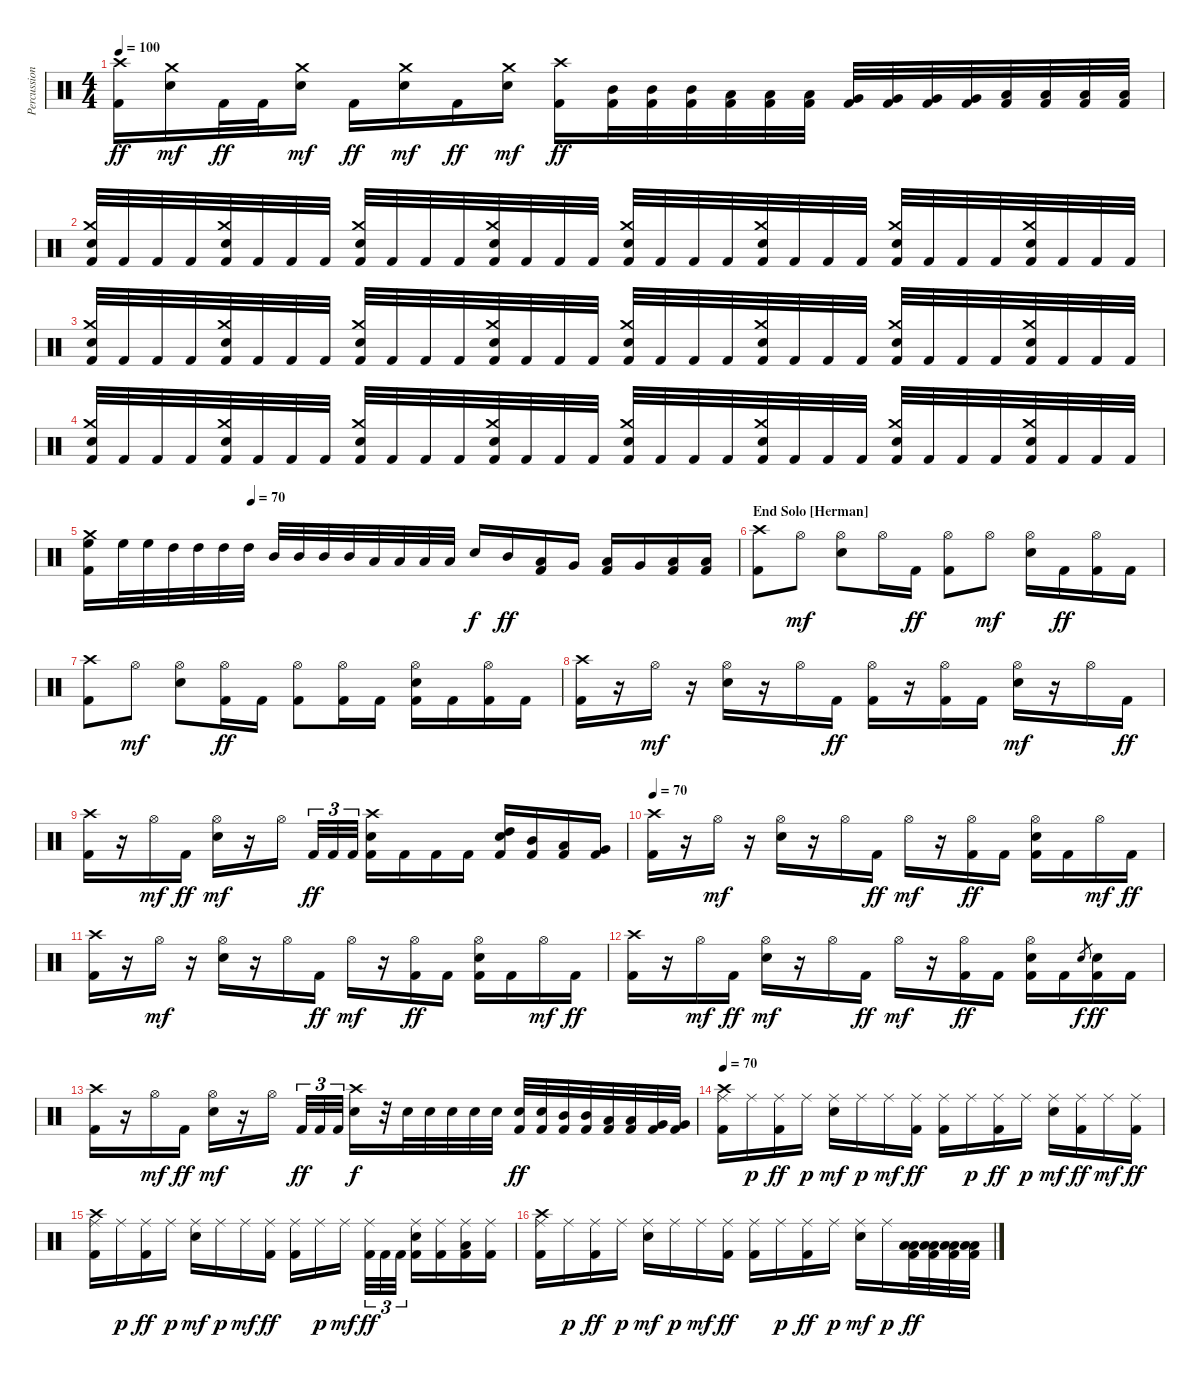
\track ("Percussion" "Percussion") {instrument percussion}
\staff {score}
\articulation defaults
\ts (4 4)
\tempo 100
\clef neutral
\ks c
("Crash high (hit)" "Kick (hit) 2").16{dy ff} ("Crash medium (hit)" "Snare (hit) 2").16{dy mf} "Kick (hit) 2".32{dy ff} "Kick (hit) 2".32 ("Crash medium (hit)" "Snare (hit) 2").16{dy mf} "Kick (hit) 2".16{dy ff} ("Crash medium (hit)" "Snare (hit) 2").16{dy mf} "Kick (hit) 2".16{dy ff} ("Crash medium (hit)" "Snare (hit) 2").16{dy mf} ("Crash high (hit)" "Kick (hit) 2").16{dy ff} ("Mid Tom (hit)" "Kick (hit) 2").32 ("Mid Tom (hit)" "Kick (hit) 2").32 ("Mid Tom (hit)" "Kick (hit) 2").32 ("Low Tom (hit)" "Kick (hit) 2").32 ("Low Tom (hit)" "Kick (hit) 2").32 ("Low Tom (hit)" "Kick (hit) 2").32 ("Very Low Tom (hit)" "Kick (hit) 2").32 ("Very Low Tom (hit)" "Kick (hit) 2").32 ("Very Low Tom (hit)" "Kick (hit) 2").32 ("Very Low Tom (hit)" "Kick (hit) 2").32 ("Low Floor Tom (hit)" "Kick (hit) 2").32 ("Low Floor Tom (hit)" "Kick (hit) 2").32 ("Low Floor Tom (hit)" "Kick (hit) 2").32 ("Low Floor Tom (hit)" "Kick (hit) 2").32 |
("Crash medium (hit)" "Snare (hit) 2" "Kick (hit) 2").32 "Kick (hit) 2".32 "Kick (hit) 2".32 "Kick (hit) 2".32 ("Crash medium (hit)" "Snare (hit) 2" "Kick (hit) 2").32 "Kick (hit) 2".32 "Kick (hit) 2".32 "Kick (hit) 2".32 ("Crash medium (hit)" "Snare (hit) 2" "Kick (hit) 2").32 "Kick (hit) 2".32 "Kick (hit) 2".32 "Kick (hit) 2".32 ("Crash medium (hit)" "Snare (hit) 2" "Kick (hit) 2").32 "Kick (hit) 2".32 "Kick (hit) 2".32 "Kick (hit) 2".32 ("Crash medium (hit)" "Snare (hit) 2" "Kick (hit) 2").32 "Kick (hit) 2".32 "Kick (hit) 2".32 "Kick (hit) 2".32 ("Crash medium (hit)" "Snare (hit) 2" "Kick (hit) 2").32 "Kick (hit) 2".32 "Kick (hit) 2".32 "Kick (hit) 2".32 ("Crash medium (hit)" "Snare (hit) 2" "Kick (hit) 2").32 "Kick (hit) 2".32 "Kick (hit) 2".32 "Kick (hit) 2".32 ("Crash medium (hit)" "Snare (hit) 2" "Kick (hit) 2").32 "Kick (hit) 2".32 "Kick (hit) 2".32 "Kick (hit) 2".32 |
("Crash medium (hit)" "Snare (hit) 2" "Kick (hit) 2").32 "Kick (hit) 2".32 "Kick (hit) 2".32 "Kick (hit) 2".32 ("Crash medium (hit)" "Snare (hit) 2" "Kick (hit) 2").32 "Kick (hit) 2".32 "Kick (hit) 2".32 "Kick (hit) 2".32 ("Crash medium (hit)" "Snare (hit) 2" "Kick (hit) 2").32 "Kick (hit) 2".32 "Kick (hit) 2".32 "Kick (hit) 2".32 ("Crash medium (hit)" "Snare (hit) 2" "Kick (hit) 2").32 "Kick (hit) 2".32 "Kick (hit) 2".32 "Kick (hit) 2".32 ("Crash medium (hit)" "Snare (hit) 2" "Kick (hit) 2").32 "Kick (hit) 2".32 "Kick (hit) 2".32 "Kick (hit) 2".32 ("Crash medium (hit)" "Snare (hit) 2" "Kick (hit) 2").32 "Kick (hit) 2".32 "Kick (hit) 2".32 "Kick (hit) 2".32 ("Crash medium (hit)" "Snare (hit) 2" "Kick (hit) 2").32 "Kick (hit) 2".32 "Kick (hit) 2".32 "Kick (hit) 2".32 ("Crash medium (hit)" "Snare (hit) 2" "Kick (hit) 2").32 "Kick (hit) 2".32 "Kick (hit) 2".32 "Kick (hit) 2".32 |
("Crash medium (hit)" "Snare (hit) 2" "Kick (hit) 2").32 "Kick (hit) 2".32 "Kick (hit) 2".32 "Kick (hit) 2".32 ("Crash medium (hit)" "Snare (hit) 2" "Kick (hit) 2").32 "Kick (hit) 2".32 "Kick (hit) 2".32 "Kick (hit) 2".32 ("Crash medium (hit)" "Snare (hit) 2" "Kick (hit) 2").32 "Kick (hit) 2".32 "Kick (hit) 2".32 "Kick (hit) 2".32 ("Crash medium (hit)" "Snare (hit) 2" "Kick (hit) 2").32 "Kick (hit) 2".32 "Kick (hit) 2".32 "Kick (hit) 2".32 ("Crash medium (hit)" "Snare (hit) 2" "Kick (hit) 2").32 "Kick (hit) 2".32 "Kick (hit) 2".32 "Kick (hit) 2".32 ("Crash medium (hit)" "Snare (hit) 2" "Kick (hit) 2").32 "Kick (hit) 2".32 "Kick (hit) 2".32 "Kick (hit) 2".32 ("Crash medium (hit)" "Snare (hit) 2" "Kick (hit) 2").32 "Kick (hit) 2".32 "Kick (hit) 2".32 "Kick (hit) 2".32 ("Crash medium (hit)" "Snare (hit) 2" "Kick (hit) 2").32 "Kick (hit) 2".32 "Kick (hit) 2".32 "Kick (hit) 2".32 |
\tempo (70 0.25)
("Crash medium (hit)" "High Floor Tom (hit)" "Kick (hit) 2").16 "High Floor Tom (hit)".32 "High Floor Tom (hit)".32 "High Tom (hit)".32 "High Tom (hit)".32 "High Tom (hit)".32 "High Tom (hit)".32 "Mid Tom (hit)".32 "Mid Tom (hit)".32 "Mid Tom (hit)".32 "Mid Tom (hit)".32 "Low Tom (hit)".32 "Low Tom (hit)".32 "Low Tom (hit)".32 "Low Tom (hit)".32 "Snare (hit) 2".16{dy f} "Mid Tom (hit)".16{dy ff} ("Low Tom (hit)" "Kick (hit) 2").16 "Very Low Tom (hit)".16 ("Low Tom (hit)" "Kick (hit) 2").16 "Very Low Tom (hit)".16 ("Low Floor Tom (hit)" "Kick (hit) 2").16 ("Low Floor Tom (hit)" "Kick (hit) 2").16 |
\section ("" "End Solo [Herman]")
("Crash high (hit)" "Kick (hit) 2").8 "Hi-Hat (open)".8{dy mf} ("Hi-Hat (open)" "Snare (hit) 2").8 "Hi-Hat (open)".16 "Kick (hit) 2".16{dy ff} ("Hi-Hat (open)" "Kick (hit) 2").8 "Hi-Hat (open)".8{dy mf} ("Hi-Hat (open)" "Snare (hit) 2").16 "Kick (hit) 2".16{dy ff} ("Hi-Hat (open)" "Kick (hit) 2").16 "Kick (hit) 2".16 |
("Crash high (hit)" "Kick (hit) 2").8 "Hi-Hat (open)".8{dy mf} ("Hi-Hat (open)" "Snare (hit) 2").8 ("Hi-Hat (open)" "Kick (hit) 2").16{dy ff} "Kick (hit) 2".16 ("Hi-Hat (open)" "Kick (hit) 2").8 ("Hi-Hat (open)" "Kick (hit) 2").16 "Kick (hit) 2".16 ("Hi-Hat (open)" "Snare (hit) 2" "Kick (hit) 2").16 "Kick (hit) 2".16 ("Hi-Hat (open)" "Kick (hit) 2").16 "Kick (hit) 2".16 |
("Crash high (hit)" "Kick (hit) 2").16 r.16 "Hi-Hat (open)".16{dy mf} r.16 ("Hi-Hat (open)" "Snare (hit) 2").16 r.16 "Hi-Hat (open)".16 "Kick (hit) 2".16{dy ff} ("Hi-Hat (open)" "Kick (hit) 2").16 r.16 ("Hi-Hat (open)" "Kick (hit) 2").16 "Kick (hit) 2".16 ("Hi-Hat (open)" "Snare (hit) 2").16{dy mf} r.16 "Hi-Hat (open)".16 "Kick (hit) 2".16{dy ff} |
("Crash high (hit)" "Kick (hit) 2").16 r.16 "Hi-Hat (open)".16{dy mf} "Kick (hit) 2".16{dy ff} ("Hi-Hat (open)" "Snare (hit) 2").16{dy mf} r.16 "Hi-Hat (open)".16 "Kick (hit) 2".32{tu (3 2) dy ff} "Kick (hit) 2".32{tu (3 2)} "Kick (hit) 2".32{tu (3 2)} ("Crash high (hit)" "Snare (hit) 2" "Kick (hit) 2").16 "Kick (hit) 2".16 "Kick (hit) 2".16 "Kick (hit) 2".16 ("High Tom (hit)" "Snare (hit) 2" "Kick (hit) 2").16 ("Mid Tom (hit)" "Kick (hit) 2").16 ("Low Tom (hit)" "Kick (hit) 2").16 ("Very Low Tom (hit)" "Kick (hit) 2").16 |
\tempo 70
("Crash high (hit)" "Kick (hit) 2").16 r.16 "Hi-Hat (open)".16{dy mf} r.16 ("Hi-Hat (open)" "Snare (hit) 2").16 r.16 "Hi-Hat (open)".16 "Kick (hit) 2".16{dy ff} "Hi-Hat (open)".16{dy mf} r.16 ("Hi-Hat (open)" "Kick (hit) 2").16{dy ff} "Kick (hit) 2".16 ("Hi-Hat (open)" "Snare (hit) 2" "Kick (hit) 2").16 "Kick (hit) 2".16 "Hi-Hat (open)".16{dy mf} "Kick (hit) 2".16{dy ff} |
("Crash high (hit)" "Kick (hit) 2").16 r.16 "Hi-Hat (open)".16{dy mf} r.16 ("Hi-Hat (open)" "Snare (hit) 2").16 r.16 "Hi-Hat (open)".16 "Kick (hit) 2".16{dy ff} "Hi-Hat (open)".16{dy mf} r.16 ("Hi-Hat (open)" "Kick (hit) 2").16{dy ff} "Kick (hit) 2".16 ("Hi-Hat (open)" "Snare (hit) 2" "Kick (hit) 2").16 "Kick (hit) 2".16 "Hi-Hat (open)".16{dy mf} "Kick (hit) 2".16{dy ff} |
("Crash high (hit)" "Kick (hit) 2").16 r.16 "Hi-Hat (open)".16{dy mf} "Kick (hit) 2".16{dy ff} ("Hi-Hat (open)" "Snare (hit) 2").16{dy mf} r.16 "Hi-Hat (open)".16 "Kick (hit) 2".16{dy ff} "Hi-Hat (open)".16{dy mf} r.16 ("Hi-Hat (open)" "Kick (hit) 2").16{dy ff} "Kick (hit) 2".16 ("Hi-Hat (open)" "Snare (hit) 2" "Kick (hit) 2").16 "Kick (hit) 2".16 "Snare (hit) 2".8{gr dy f} ("Snare (hit) 2" "Kick (hit) 2").16{dy ff} "Kick (hit) 2".16 |
("Crash high (hit)" "Kick (hit) 2").16 r.16 "Hi-Hat (open)".16{dy mf} "Kick (hit) 2".16{dy ff} ("Hi-Hat (open)" "Snare (hit) 2").16{dy mf} r.16 "Hi-Hat (open)".16 "Kick (hit) 2".32{tu (3 2) dy ff} "Kick (hit) 2".32{tu (3 2)} "Kick (hit) 2".32{tu (3 2)} ("Crash high (hit)" "Snare (hit) 2").16{dy f} r.32 "Snare (hit) 2".32 "Snare (hit) 2".32 "Snare (hit) 2".32 "Snare (hit) 2".32 "Snare (hit) 2".32 ("Snare (hit) 2" "Kick (hit) 2").32{dy ff} ("Snare (hit) 2" "Kick (hit) 2").32 ("Mid Tom (hit)" "Kick (hit) 2").32 ("Mid Tom (hit)" "Kick (hit) 2").32 ("Low Tom (hit)" "Kick (hit) 2").32 ("Low Tom (hit)" "Kick (hit) 2").32 ("Very Low Tom (hit)" "Kick (hit) 2").32 ("Very Low Tom (hit)" "Kick (hit) 2").32 |
\section ("" "")
\tempo 70
("Crash high (hit)" "Ride (middle)" "Kick (hit) 2").16 "Ride (middle)".16{dy p} ("Ride (middle)" "Kick (hit) 2").16{dy ff} "Ride (middle)".16{dy p} ("Ride (middle)" "Snare (hit) 2").16{dy mf} "Ride (middle)".16{dy p} "Ride (middle)".16{dy mf} ("Ride (middle)" "Kick (hit) 2").16{dy ff} ("Ride (middle)" "Kick (hit) 2").16 "Ride (middle)".16{dy p} ("Ride (middle)" "Kick (hit) 2").16{dy ff} "Ride (middle)".16{dy p} ("Ride (middle)" "Snare (hit) 2").16{dy mf} ("Ride (middle)" "Kick (hit) 2").16{dy ff} "Ride (middle)".16{dy mf} ("Ride (middle)" "Kick (hit) 2").16{dy ff} |
("Crash high (hit)" "Ride (middle)" "Kick (hit) 2").16 "Ride (middle)".16{dy p} ("Ride (middle)" "Kick (hit) 2").16{dy ff} "Ride (middle)".16{dy p} ("Ride (middle)" "Snare (hit) 2").16{dy mf} "Ride (middle)".16{dy p} "Ride (middle)".16{dy mf} ("Ride (middle)" "Kick (hit) 2").16{dy ff} ("Ride (middle)" "Kick (hit) 2").16 "Ride (middle)".16{dy p} "Ride (middle)".16{dy mf} ("Ride (middle)" "Kick (hit) 2").32{tu (3 2) dy ff} "Kick (hit) 2".32{tu (3 2)} "Kick (hit) 2".32{tu (3 2)} ("Ride (middle)" "Snare (hit) 2" "Kick (hit) 2").16 ("Ride (middle)" "Kick (hit) 2").16 ("Ride (middle)" "Low Tom (hit)" "Kick (hit) 2").16 ("Ride (middle)" "Kick (hit) 2").16 |
("Crash high (hit)" "Ride (middle)" "Kick (hit) 2").16 "Ride (middle)".16{dy p} ("Ride (middle)" "Kick (hit) 2").16{dy ff} "Ride (middle)".16{dy p} ("Ride (middle)" "Snare (hit) 2").16{dy mf} "Ride (middle)".16{dy p} "Ride (middle)".16{dy mf} ("Ride (middle)" "Kick (hit) 2").16{dy ff} ("Ride (middle)" "Kick (hit) 2").16 "Ride (middle)".16{dy p} ("Ride (middle)" "Kick (hit) 2").16{dy ff} "Ride (middle)".16{dy p} ("Ride (middle)" "Snare (hit) 2").16{dy mf} "Ride (middle)".16{dy p} ("Low Tom (hit)" "Low Floor Tom (hit)" "Kick (hit) 2").32{dy ff} ("Low Tom (hit)" "Low Floor Tom (hit)" "Kick (hit) 2").32 ("Low Tom (hit)" "Low Floor Tom (hit)" "Kick (hit) 2").32 ("Low Tom (hit)" "Low Floor Tom (hit)" "Kick (hit) 2").32
